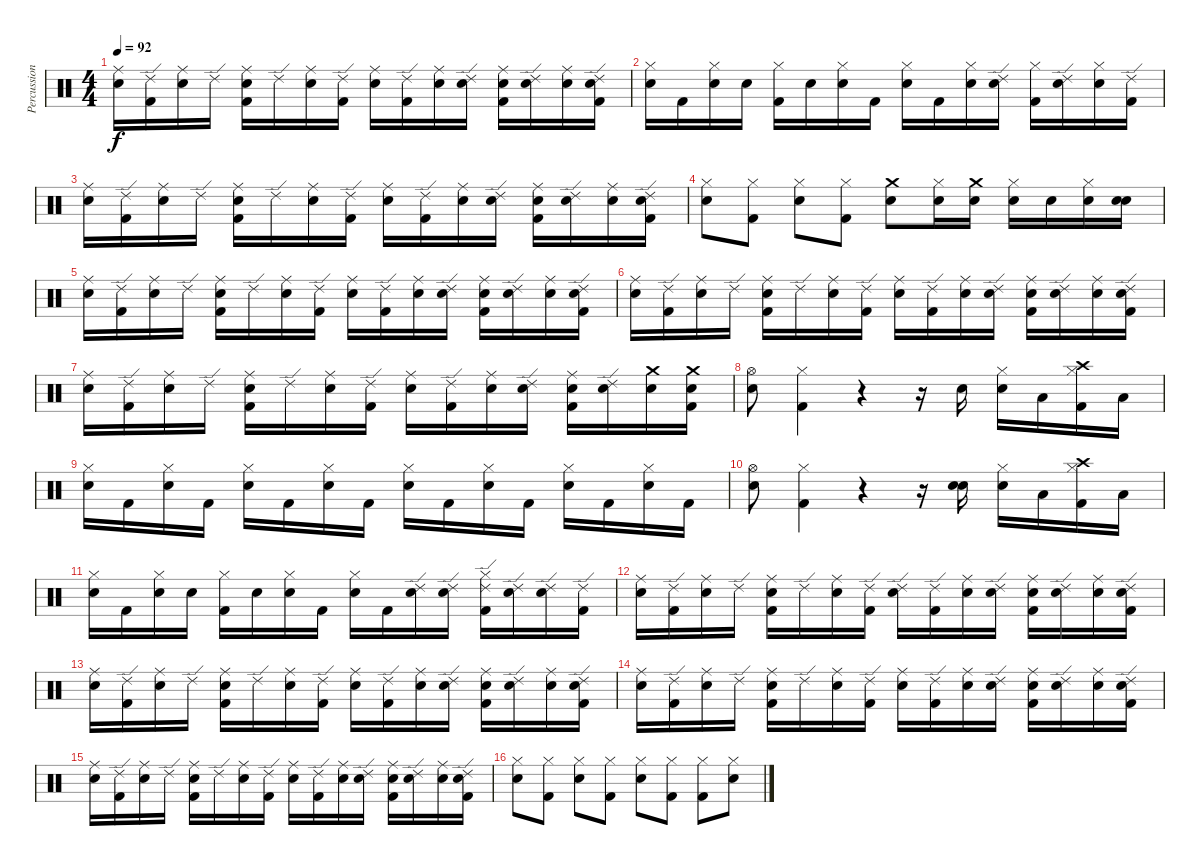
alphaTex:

\track ("Percussion" "Percussion") {instrument percussion}
\staff {score}
\articulation defaults
\ts (4 4)
\tempo 92
\clef neutral
\ks c
("Ride (middle)" "Snare (hit) 2").16{dy f} ("Ride (edge) 2" "Kick (hit) 2").16 ("Ride (middle)" "Snare (hit) 2").16 "Ride (edge) 2".16 ("Ride (middle)" "Snare (hit) 2" "Kick (hit) 2").16 "Ride (edge) 2".16 ("Ride (middle)" "Snare (hit) 2").16 ("Ride (edge) 2" "Kick (hit) 2").16 ("Ride (middle)" "Snare (hit) 2").16 ("Ride (edge) 2" "Kick (hit) 2").16 ("Ride (middle)" "Snare (hit) 2").16 ("Ride (edge) 2" "Snare (hit) 2").16 ("Ride (middle)" "Snare (hit) 2" "Kick (hit) 2").16 ("Ride (edge) 2" "Snare (hit) 2").16 ("Ride (middle)" "Snare (hit) 2").16 ("Ride (edge) 2" "Snare (hit) 2" "Kick (hit) 2").16 |
("Hi-Hat (closed)" "Snare (hit) 2").16 "Kick (hit) 2".16 ("Hi-Hat (closed)" "Snare (hit) 2").16 "Snare (hit) 2".16 ("Hi-Hat (closed)" "Kick (hit) 2").16 "Snare (hit) 2".16 ("Hi-Hat (closed)" "Snare (hit) 2").16 "Kick (hit) 2".16 ("Hi-Hat (closed)" "Snare (hit) 2").16 "Kick (hit) 2".16 ("Hi-Hat (closed)" "Snare (hit) 2").16 ("Ride (edge) 2" "Snare (hit) 2").16 ("Hi-Hat (closed)" "Kick (hit) 2").16 ("Ride (edge) 2" "Snare (hit) 2").16 ("Hi-Hat (closed)" "Snare (hit) 2").16 ("Ride (edge) 2" "Kick (hit) 2").16 |
("Ride (middle)" "Snare (hit) 2").16 ("Ride (edge) 2" "Kick (hit) 2").16 ("Ride (middle)" "Snare (hit) 2").16 "Ride (edge) 2".16 ("Ride (middle)" "Snare (hit) 2" "Kick (hit) 2").16 "Ride (edge) 2".16 ("Ride (middle)" "Snare (hit) 2").16 ("Ride (edge) 2" "Kick (hit) 2").16 ("Ride (middle)" "Snare (hit) 2").16 ("Ride (edge) 2" "Kick (hit) 2").16 ("Ride (middle)" "Snare (hit) 2").16 ("Ride (edge) 2" "Snare (hit) 2").16 ("Ride (middle)" "Snare (hit) 2" "Kick (hit) 2").16 ("Ride (edge) 2" "Snare (hit) 2").16 ("Ride (middle)" "Snare (hit) 2").16 ("Ride (edge) 2" "Snare (hit) 2" "Kick (hit) 2").16 |
("Hi-Hat (closed)" "Snare (hit) 2").8 ("Hi-Hat (closed)" "Kick (hit) 2").8 ("Hi-Hat (closed)" "Snare (hit) 2").8 ("Hi-Hat (closed)" "Kick (hit) 2").8 ("Crash medium (hit)" "Snare (hit) 2").8 ("Hi-Hat (closed)" "Snare (hit) 2").16 ("Crash medium (hit)" "Snare (hit) 2").16 ("Hi-Hat (closed)" "Snare (hit) 2").16 "Snare (hit) 2".16 ("Hi-Hat (closed)" "Snare (hit) 2").16 ("Electric Snare (hit)" "Snare (hit) 2").16 |
("Ride (middle)" "Snare (hit) 2").16 ("Ride (edge) 2" "Kick (hit) 2").16 ("Ride (middle)" "Snare (hit) 2").16 "Ride (edge) 2".16 ("Ride (middle)" "Snare (hit) 2" "Kick (hit) 2").16 "Ride (edge) 2".16 ("Ride (middle)" "Snare (hit) 2").16 ("Ride (edge) 2" "Kick (hit) 2").16 ("Ride (middle)" "Snare (hit) 2").16 ("Ride (edge) 2" "Kick (hit) 2").16 ("Ride (middle)" "Snare (hit) 2").16 ("Ride (edge) 2" "Snare (hit) 2").16 ("Ride (middle)" "Snare (hit) 2" "Kick (hit) 2").16 ("Ride (edge) 2" "Snare (hit) 2").16 ("Ride (middle)" "Snare (hit) 2").16 ("Ride (edge) 2" "Snare (hit) 2" "Kick (hit) 2").16 |
("Ride (middle)" "Snare (hit) 2").16 ("Ride (edge) 2" "Kick (hit) 2").16 ("Ride (middle)" "Snare (hit) 2").16 "Ride (edge) 2".16 ("Ride (middle)" "Snare (hit) 2" "Kick (hit) 2").16 "Ride (edge) 2".16 ("Ride (middle)" "Snare (hit) 2").16 ("Ride (edge) 2" "Kick (hit) 2").16 ("Ride (middle)" "Snare (hit) 2").16 ("Ride (edge) 2" "Kick (hit) 2").16 ("Ride (middle)" "Snare (hit) 2").16 ("Ride (edge) 2" "Snare (hit) 2").16 ("Ride (middle)" "Snare (hit) 2" "Kick (hit) 2").16 ("Ride (edge) 2" "Snare (hit) 2").16 ("Ride (middle)" "Snare (hit) 2").16 ("Ride (edge) 2" "Snare (hit) 2" "Kick (hit) 2").16 |
("Ride (middle)" "Snare (hit) 2").16 ("Ride (edge) 2" "Kick (hit) 2").16 ("Ride (middle)" "Snare (hit) 2").16 "Ride (edge) 2".16 ("Ride (middle)" "Snare (hit) 2" "Kick (hit) 2").16 "Ride (edge) 2".16 ("Ride (middle)" "Snare (hit) 2").16 ("Ride (edge) 2" "Kick (hit) 2").16 ("Ride (middle)" "Snare (hit) 2").16 ("Ride (edge) 2" "Kick (hit) 2").16 ("Ride (middle)" "Snare (hit) 2").16 ("Ride (edge) 2" "Snare (hit) 2").16 ("Ride (middle)" "Snare (hit) 2" "Kick (hit) 2").16 ("Ride (edge) 2" "Snare (hit) 2").16 ("Crash medium (hit)" "Snare (hit) 2").16 ("Crash medium (hit)" "Snare (hit) 2" "Kick (hit) 2").16 |
("Hi-Hat (open)" "Snare (hit) 2").8 ("Hi-Hat (closed)" "Kick (hit) 2").4 r.4 r.16 "Snare (hit) 2".16 ("Hi-Hat (closed)" "Snare (hit) 2").16 "Low Floor Tom (hit)".16 ("Crash high (hit)" "Hi-Hat (closed)" "Kick (hit) 2").16 "Low Floor Tom (hit)".16 |
("Hi-Hat (closed)" "Snare (hit) 2").16 "Kick (hit) 2".16 ("Hi-Hat (closed)" "Snare (hit) 2").16 "Kick (hit) 2".16 ("Hi-Hat (closed)" "Snare (hit) 2").16 "Kick (hit) 2".16 ("Hi-Hat (closed)" "Snare (hit) 2").16 "Kick (hit) 2".16 ("Hi-Hat (closed)" "Snare (hit) 2").16 "Kick (hit) 2".16 ("Hi-Hat (closed)" "Snare (hit) 2").16 "Kick (hit) 2".16 ("Hi-Hat (closed)" "Snare (hit) 2").16 "Kick (hit) 2".16 ("Hi-Hat (closed)" "Snare (hit) 2").16 "Kick (hit) 2".16 |
("Hi-Hat (open)" "Snare (hit) 2").8 ("Hi-Hat (closed)" "Kick (hit) 2").4 r.4 r.16 ("Electric Snare (hit)" "Snare (hit) 2").16 ("Hi-Hat (closed)" "Snare (hit) 2").16 "Low Floor Tom (hit)".16 ("Crash high (hit)" "Hi-Hat (closed)" "Kick (hit) 2").16 "Low Floor Tom (hit)".16 |
("Hi-Hat (closed)" "Snare (hit) 2").16 "Kick (hit) 2".16 ("Hi-Hat (closed)" "Snare (hit) 2").16 "Snare (hit) 2".16 ("Hi-Hat (closed)" "Kick (hit) 2").16 "Snare (hit) 2".16 ("Hi-Hat (closed)" "Snare (hit) 2").16 "Kick (hit) 2".16 ("Hi-Hat (closed)" "Snare (hit) 2").16 "Kick (hit) 2".16 ("Ride (edge) 2" "Snare (hit) 2").16 ("Ride (edge) 2" "Snare (hit) 2").16 ("Ride (edge) 2" "Hi-Hat (closed)" "Kick (hit) 2").16 ("Ride (edge) 2" "Snare (hit) 2").16 ("Ride (edge) 2" "Snare (hit) 2").16 ("Ride (edge) 2" "Kick (hit) 2").16 |
("Ride (middle)" "Snare (hit) 2").16 ("Ride (edge) 2" "Kick (hit) 2").16 ("Ride (middle)" "Snare (hit) 2").16 "Ride (edge) 2".16 ("Ride (middle)" "Snare (hit) 2" "Kick (hit) 2").16 "Ride (edge) 2".16 ("Ride (middle)" "Snare (hit) 2").16 ("Ride (edge) 2" "Kick (hit) 2").16 ("Ride (edge) 2" "Snare (hit) 2").16 ("Ride (edge) 2" "Kick (hit) 2").16 ("Ride (middle)" "Snare (hit) 2").16 ("Ride (edge) 2" "Snare (hit) 2").16 ("Ride (middle)" "Snare (hit) 2" "Kick (hit) 2").16 ("Ride (edge) 2" "Snare (hit) 2").16 ("Ride (middle)" "Snare (hit) 2").16 ("Ride (edge) 2" "Snare (hit) 2" "Kick (hit) 2").16 |
("Ride (middle)" "Snare (hit) 2").16 ("Ride (edge) 2" "Kick (hit) 2").16 ("Ride (middle)" "Snare (hit) 2").16 "Ride (edge) 2".16 ("Ride (middle)" "Snare (hit) 2" "Kick (hit) 2").16 "Ride (edge) 2".16 ("Ride (middle)" "Snare (hit) 2").16 ("Ride (edge) 2" "Kick (hit) 2").16 ("Ride (middle)" "Snare (hit) 2").16 ("Ride (edge) 2" "Kick (hit) 2").16 ("Ride (middle)" "Snare (hit) 2").16 ("Ride (edge) 2" "Snare (hit) 2").16 ("Ride (middle)" "Snare (hit) 2" "Kick (hit) 2").16 ("Ride (edge) 2" "Snare (hit) 2").16 ("Ride (middle)" "Snare (hit) 2").16 ("Ride (edge) 2" "Snare (hit) 2" "Kick (hit) 2").16 |
("Ride (middle)" "Snare (hit) 2").16 ("Ride (edge) 2" "Kick (hit) 2").16 ("Ride (middle)" "Snare (hit) 2").16 "Ride (edge) 2".16 ("Ride (middle)" "Snare (hit) 2" "Kick (hit) 2").16 "Ride (edge) 2".16 ("Ride (middle)" "Snare (hit) 2").16 ("Ride (edge) 2" "Kick (hit) 2").16 ("Ride (middle)" "Snare (hit) 2").16 ("Ride (edge) 2" "Kick (hit) 2").16 ("Ride (middle)" "Snare (hit) 2").16 ("Ride (edge) 2" "Snare (hit) 2").16 ("Ride (middle)" "Snare (hit) 2" "Kick (hit) 2").16 ("Ride (edge) 2" "Snare (hit) 2").16 ("Ride (middle)" "Snare (hit) 2").16 ("Ride (edge) 2" "Snare (hit) 2" "Kick (hit) 2").16 |
("Ride (middle)" "Snare (hit) 2").16 ("Ride (edge) 2" "Kick (hit) 2").16 ("Ride (middle)" "Snare (hit) 2").16 "Ride (edge) 2".16 ("Ride (middle)" "Snare (hit) 2" "Kick (hit) 2").16 "Ride (edge) 2".16 ("Ride (middle)" "Snare (hit) 2").16 ("Ride (edge) 2" "Kick (hit) 2").16 ("Ride (middle)" "Snare (hit) 2").16 ("Ride (edge) 2" "Kick (hit) 2").16 ("Ride (middle)" "Snare (hit) 2").16 ("Ride (edge) 2" "Snare (hit) 2").16 ("Ride (middle)" "Snare (hit) 2" "Kick (hit) 2").16 ("Ride (edge) 2" "Snare (hit) 2").16 ("Ride (middle)" "Snare (hit) 2").16 ("Ride (edge) 2" "Snare (hit) 2" "Kick (hit) 2").16 |
("Hi-Hat (closed)" "Snare (hit) 2").8 ("Hi-Hat (closed)" "Kick (hit) 2").8 ("Hi-Hat (closed)" "Snare (hit) 2").8 ("Hi-Hat (closed)" "Kick (hit) 2").8 ("Hi-Hat (closed)" "Snare (hit) 2").8 ("Hi-Hat (closed)" "Kick (hit) 2").8 ("Hi-Hat (closed)" "Kick (hit) 2").8 ("Hi-Hat (closed)" "Snare (hit) 2").8
